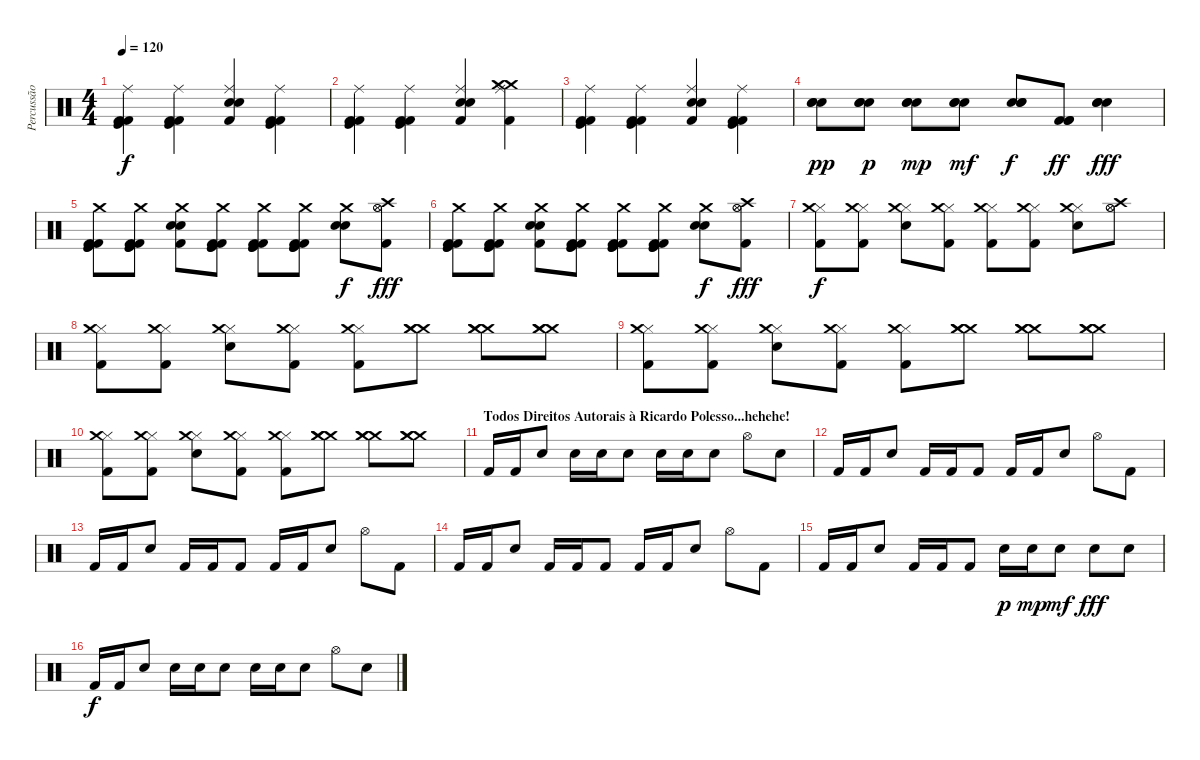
\track ("Percussão" "Percussão") {instrument percussion}
\staff {score}
\articulation defaults
\ts (4 4)
\tempo 120
\clef neutral
\ks c
("Kick (hit)" "Kick (hit) 2" "Ride (middle)" "Kick (hit) 2").4{dy f} ("Kick (hit)" "Kick (hit) 2" "Ride (middle)" "Kick (hit) 2").4 ("Snare (hit) 2" "Snare (hit) 2" "Ride (middle)" "Kick (hit) 2").4 ("Kick (hit)" "Kick (hit) 2" "Ride (middle)" "Kick (hit) 2").4 |
("Kick (hit)" "Kick (hit) 2" "Ride (middle)" "Kick (hit) 2").4 ("Kick (hit)" "Kick (hit) 2" "Ride (middle)" "Kick (hit) 2").4 ("Snare (hit) 2" "Snare (hit) 2" "Ride (middle)" "Kick (hit) 2").4 ("Crash medium (hit)" "Crash medium (hit)" "Ride (middle)" "Kick (hit) 2").4 |
("Kick (hit)" "Kick (hit) 2" "Ride (middle)" "Kick (hit) 2").4 ("Kick (hit)" "Kick (hit) 2" "Ride (middle)" "Kick (hit) 2").4 ("Snare (hit) 2" "Snare (hit) 2" "Ride (middle)" "Kick (hit) 2").4 ("Kick (hit)" "Kick (hit) 2" "Ride (middle)" "Kick (hit) 2").4 |
("Snare (hit) 2" "Snare (hit) 2" "Snare (hit) 2").8{dy pp} ("Snare (hit) 2" "Snare (hit) 2" "Snare (hit) 2").8{dy p} ("Snare (hit) 2" "Snare (hit) 2" "Snare (hit) 2").8{dy mp} ("Snare (hit) 2" "Snare (hit) 2" "Snare (hit) 2").8{dy mf} ("Snare (hit) 2" "Snare (hit) 2" "Snare (hit) 2").8{dy f} ("Kick (hit) 2" "Kick (hit) 2" "Kick (hit) 2").8{dy ff} ("Snare (hit) 2" "Snare (hit) 2" "Snare (hit) 2").4{dy fff} |
("Kick (hit) 2" "Kick (hit) 2" "Kick (hit)" "Kick (hit)" "Crash medium (hit)").8 ("Kick (hit) 2" "Kick (hit) 2" "Kick (hit)" "Kick (hit)" "Crash medium (hit)").8 ("Snare (hit) 2" "Snare (hit) 2" "Kick (hit) 2" "Crash medium (hit)").8 ("Kick (hit) 2" "Kick (hit) 2" "Kick (hit)" "Kick (hit)" "Crash medium (hit)").8 ("Kick (hit) 2" "Kick (hit) 2" "Kick (hit)" "Kick (hit)" "Crash medium (hit)").8 ("Kick (hit) 2" "Kick (hit) 2" "Kick (hit)" "Kick (hit)" "Crash medium (hit)").8 ("Snare (hit) 2" "Electric Snare (hit)" "Crash medium (hit)").8{dy f} ("Hi-Hat (open)" "Hi-Hat (open)" "Kick (hit) 2" "Crash high (hit)").8{dy fff} |
("Kick (hit) 2" "Kick (hit) 2" "Kick (hit)" "Kick (hit)" "Crash medium (hit)").8 ("Kick (hit) 2" "Kick (hit) 2" "Kick (hit)" "Kick (hit)" "Crash medium (hit)").8 ("Snare (hit) 2" "Snare (hit) 2" "Kick (hit) 2" "Crash medium (hit)").8 ("Kick (hit) 2" "Kick (hit) 2" "Kick (hit)" "Kick (hit)" "Crash medium (hit)").8 ("Kick (hit) 2" "Kick (hit) 2" "Kick (hit)" "Kick (hit)" "Crash medium (hit)").8 ("Kick (hit) 2" "Kick (hit) 2" "Kick (hit)" "Kick (hit)" "Crash medium (hit)").8 ("Snare (hit) 2" "Electric Snare (hit)" "Crash medium (hit)").8{dy f} ("Hi-Hat (open)" "Hi-Hat (open)" "Kick (hit) 2" "Crash high (hit)").8{dy fff} |
("Kick (hit) 2" "Hi-Hat (closed)" "Crash medium (hit)").8{dy f} ("Kick (hit) 2" "Hi-Hat (closed)" "Crash medium (hit)").8 ("Snare (hit) 2" "Hi-Hat (closed)" "Crash medium (hit)").8 ("Kick (hit) 2" "Hi-Hat (closed)" "Crash medium (hit)").8 ("Kick (hit) 2" "Hi-Hat (closed)" "Crash medium (hit)").8 ("Kick (hit) 2" "Hi-Hat (closed)" "Crash medium (hit)").8 ("Snare (hit) 2" "Hi-Hat (closed)" "Crash medium (hit)").8 ("Hi-Hat (open)" "Hi-Hat (open)" "Crash high (hit)").8 |
("Kick (hit) 2" "Hi-Hat (closed)" "Crash medium (hit)").8 ("Kick (hit) 2" "Hi-Hat (closed)" "Crash medium (hit)").8 ("Snare (hit) 2" "Hi-Hat (closed)" "Crash medium (hit)").8 ("Kick (hit) 2" "Hi-Hat (closed)" "Crash medium (hit)").8 ("Kick (hit) 2" "Hi-Hat (closed)" "Crash medium (hit)").8 ("Crash medium (hit)" "Crash medium (hit)" "Crash medium (hit)").8 ("Crash medium (hit)" "Crash medium (hit)" "Crash medium (hit)").8 ("Crash medium (hit)" "Crash medium (hit)" "Crash medium (hit)").8 |
("Kick (hit) 2" "Hi-Hat (closed)" "Crash medium (hit)").8 ("Kick (hit) 2" "Hi-Hat (closed)" "Crash medium (hit)").8 ("Snare (hit) 2" "Hi-Hat (closed)" "Crash medium (hit)").8 ("Kick (hit) 2" "Hi-Hat (closed)" "Crash medium (hit)").8 ("Kick (hit) 2" "Hi-Hat (closed)" "Crash medium (hit)").8 ("Crash medium (hit)" "Crash medium (hit)" "Crash medium (hit)").8 ("Crash medium (hit)" "Crash medium (hit)" "Crash medium (hit)").8 ("Crash medium (hit)" "Crash medium (hit)" "Crash medium (hit)").8 |
("Kick (hit) 2" "Hi-Hat (closed)" "Crash medium (hit)").8 ("Kick (hit) 2" "Hi-Hat (closed)" "Crash medium (hit)").8 ("Snare (hit) 2" "Hi-Hat (closed)" "Crash medium (hit)").8 ("Kick (hit) 2" "Hi-Hat (closed)" "Crash medium (hit)").8 ("Kick (hit) 2" "Hi-Hat (closed)" "Crash medium (hit)").8 ("Crash medium (hit)" "Crash medium (hit)" "Crash medium (hit)").8 ("Crash medium (hit)" "Crash medium (hit)" "Crash medium (hit)").8 ("Crash medium (hit)" "Crash medium (hit)" "Crash medium (hit)").8 |
\section ("" "Todos Direitos Autorais à Ricardo Polesso...hehehe!")
"Kick (hit) 2".16 "Kick (hit) 2".16 "Snare (hit) 2".8 "Electric Snare (hit)".16 "Electric Snare (hit)".16 "Electric Snare (hit)".8 "Electric Snare (hit)".16 "Electric Snare (hit)".16 "Snare (hit) 2".8 "Hi-Hat (open)".8 "Electric Snare (hit)".8 |
"Kick (hit) 2".16 "Kick (hit) 2".16 "Snare (hit) 2".8 "Kick (hit) 2".16 "Kick (hit) 2".16 "Kick (hit) 2".8 "Kick (hit) 2".16 "Kick (hit) 2".16 "Snare (hit) 2".8 "Hi-Hat (open)".8 "Kick (hit) 2".8 |
"Kick (hit) 2".16 "Kick (hit) 2".16 "Snare (hit) 2".8 "Kick (hit) 2".16 "Kick (hit) 2".16 "Kick (hit) 2".8 "Kick (hit) 2".16 "Kick (hit) 2".16 "Snare (hit) 2".8 "Hi-Hat (open)".8 "Kick (hit) 2".8 |
"Kick (hit) 2".16 "Kick (hit) 2".16 "Snare (hit) 2".8 "Kick (hit) 2".16 "Kick (hit) 2".16 "Kick (hit) 2".8 "Kick (hit) 2".16 "Kick (hit) 2".16 "Snare (hit) 2".8 "Hi-Hat (open)".8 "Kick (hit) 2".8 |
"Kick (hit) 2".16 "Kick (hit) 2".16 "Snare (hit) 2".8 "Kick (hit) 2".16 "Kick (hit) 2".16 "Kick (hit) 2".8 "Electric Snare (hit)".16{dy p} "Electric Snare (hit)".16{dy mp} "Electric Snare (hit)".8{dy mf} "Electric Snare (hit)".8{dy fff} "Electric Snare (hit)".8 |
"Kick (hit) 2".16{dy f} "Kick (hit) 2".16 "Snare (hit) 2".8 "Electric Snare (hit)".16 "Electric Snare (hit)".16 "Electric Snare (hit)".8 "Electric Snare (hit)".16 "Electric Snare (hit)".16 "Snare (hit) 2".8 "Hi-Hat (open)".8 "Electric Snare (hit)".8
